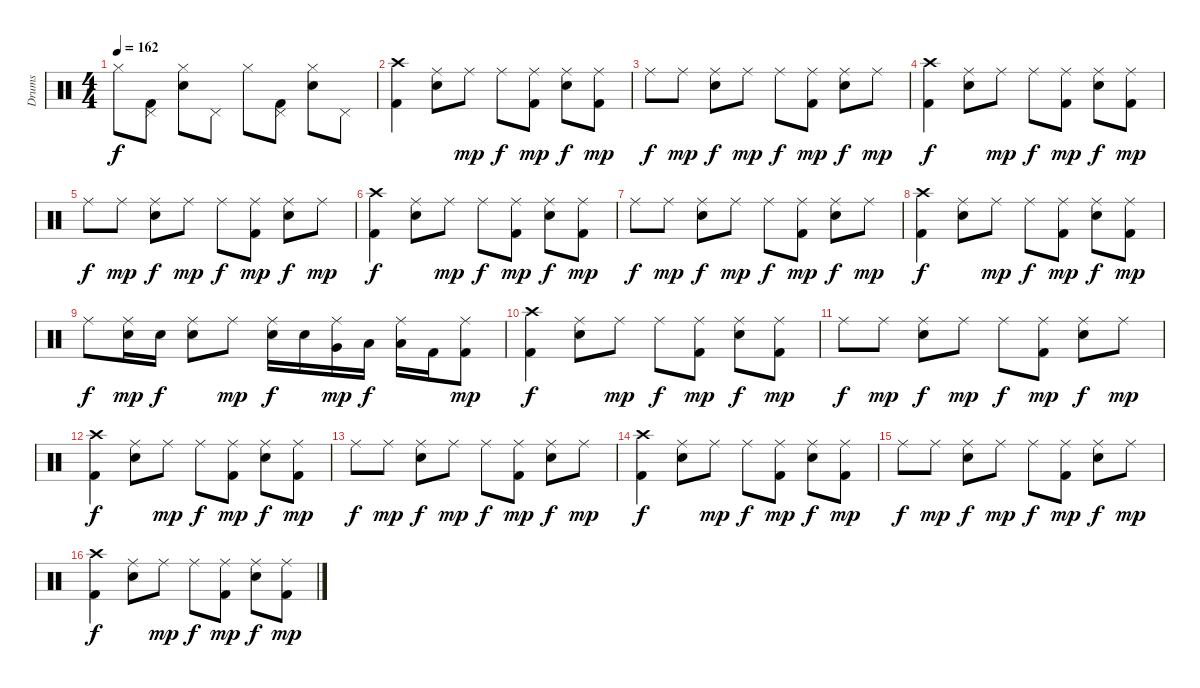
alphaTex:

\track ("Drums" "Drums") {instrument percussion}
\staff {score}
\articulation defaults
\ts (4 4)
\tempo 162
\clef neutral
\ks c "Hi-Hat (closed)".8{dy f}
("Kick (hit) 2" "Pedal Hi-Hat (hit)").8 ("Electric Snare (hit)" "Hi-Hat (closed)").8 "Pedal Hi-Hat (hit)".8 "Hi-Hat (closed)".8 ("Kick (hit) 2" "Pedal Hi-Hat (hit)").8 ("Electric Snare (hit)" "Hi-Hat (closed)").8 "Pedal Hi-Hat (hit)".8 |
("Kick (hit) 2" "Crash high (hit)").4 ("Ride (middle)" "Electric Snare (hit)").8 "Ride (middle)".8{dy mp} "Ride (middle)".8{dy f} ("Kick (hit) 2" "Ride (middle)").8{dy mp} ("Electric Snare (hit)" "Ride (middle)").8{dy f} ("Kick (hit) 2" "Ride (middle)").8{dy mp} |
"Ride (middle)".8{dy f} "Ride (middle)".8{dy mp} ("Electric Snare (hit)" "Ride (middle)").8{dy f} "Ride (middle)".8{dy mp} "Ride (middle)".8{dy f} ("Kick (hit) 2" "Ride (middle)").8{dy mp} ("Electric Snare (hit)" "Ride (middle)").8{dy f} "Ride (middle)".8{dy mp} |
("Kick (hit) 2" "Crash high (hit)").4{dy f} ("Ride (middle)" "Electric Snare (hit)").8 "Ride (middle)".8{dy mp} "Ride (middle)".8{dy f} ("Kick (hit) 2" "Ride (middle)").8{dy mp} ("Electric Snare (hit)" "Ride (middle)").8{dy f} ("Kick (hit) 2" "Ride (middle)").8{dy mp} |
"Ride (middle)".8{dy f} "Ride (middle)".8{dy mp} ("Electric Snare (hit)" "Ride (middle)").8{dy f} "Ride (middle)".8{dy mp} "Ride (middle)".8{dy f} ("Kick (hit) 2" "Ride (middle)").8{dy mp} ("Electric Snare (hit)" "Ride (middle)").8{dy f} "Ride (middle)".8{dy mp} |
("Kick (hit) 2" "Crash high (hit)").4{dy f} ("Ride (middle)" "Electric Snare (hit)").8 "Ride (middle)".8{dy mp} "Ride (middle)".8{dy f} ("Kick (hit) 2" "Ride (middle)").8{dy mp} ("Electric Snare (hit)" "Ride (middle)").8{dy f} ("Kick (hit) 2" "Ride (middle)").8{dy mp} |
"Ride (middle)".8{dy f} "Ride (middle)".8{dy mp} ("Electric Snare (hit)" "Ride (middle)").8{dy f} "Ride (middle)".8{dy mp} "Ride (middle)".8{dy f} ("Kick (hit) 2" "Ride (middle)").8{dy mp} ("Electric Snare (hit)" "Ride (middle)").8{dy f} "Ride (middle)".8{dy mp} |
("Kick (hit) 2" "Crash high (hit)").4{dy f} ("Ride (middle)" "Electric Snare (hit)").8 "Ride (middle)".8{dy mp} "Ride (middle)".8{dy f} ("Kick (hit) 2" "Ride (middle)").8{dy mp} ("Electric Snare (hit)" "Ride (middle)").8{dy f} ("Kick (hit) 2" "Ride (middle)").8{dy mp} |
"Ride (middle)".8{dy f} ("Electric Snare (hit)" "Ride (middle)").16{dy mp} "Electric Snare (hit)".16{dy f} ("Electric Snare (hit)" "Ride (middle)").8 "Ride (middle)".8{dy mp} ("Electric Snare (hit)" "Ride (middle)").16{dy f} "Electric Snare (hit)".16 ("Very Low Tom (hit)" "Ride (middle)").16{dy mp} "Low Floor Tom (hit)".16{dy f} ("Low Floor Tom (hit)" "Ride (middle)").16 "Kick (hit) 2".16 ("Kick (hit) 2" "Ride (middle)").8{dy mp} |
("Kick (hit) 2" "Crash high (hit)").4{dy f} ("Ride (middle)" "Electric Snare (hit)").8 "Ride (middle)".8{dy mp} "Ride (middle)".8{dy f} ("Kick (hit) 2" "Ride (middle)").8{dy mp} ("Electric Snare (hit)" "Ride (middle)").8{dy f} ("Kick (hit) 2" "Ride (middle)").8{dy mp} |
"Ride (middle)".8{dy f} "Ride (middle)".8{dy mp} ("Electric Snare (hit)" "Ride (middle)").8{dy f} "Ride (middle)".8{dy mp} "Ride (middle)".8{dy f} ("Kick (hit) 2" "Ride (middle)").8{dy mp} ("Electric Snare (hit)" "Ride (middle)").8{dy f} "Ride (middle)".8{dy mp} |
("Kick (hit) 2" "Crash high (hit)").4{dy f} ("Ride (middle)" "Electric Snare (hit)").8 "Ride (middle)".8{dy mp} "Ride (middle)".8{dy f} ("Kick (hit) 2" "Ride (middle)").8{dy mp} ("Electric Snare (hit)" "Ride (middle)").8{dy f} ("Kick (hit) 2" "Ride (middle)").8{dy mp} |
"Ride (middle)".8{dy f} "Ride (middle)".8{dy mp} ("Electric Snare (hit)" "Ride (middle)").8{dy f} "Ride (middle)".8{dy mp} "Ride (middle)".8{dy f} ("Kick (hit) 2" "Ride (middle)").8{dy mp} ("Electric Snare (hit)" "Ride (middle)").8{dy f} "Ride (middle)".8{dy mp} |
("Kick (hit) 2" "Crash high (hit)").4{dy f} ("Ride (middle)" "Electric Snare (hit)").8 "Ride (middle)".8{dy mp} "Ride (middle)".8{dy f} ("Kick (hit) 2" "Ride (middle)").8{dy mp} ("Electric Snare (hit)" "Ride (middle)").8{dy f} ("Kick (hit) 2" "Ride (middle)").8{dy mp} |
"Ride (middle)".8{dy f} "Ride (middle)".8{dy mp} ("Electric Snare (hit)" "Ride (middle)").8{dy f} "Ride (middle)".8{dy mp} "Ride (middle)".8{dy f} ("Kick (hit) 2" "Ride (middle)").8{dy mp} ("Electric Snare (hit)" "Ride (middle)").8{dy f} "Ride (middle)".8{dy mp} |
("Kick (hit) 2" "Crash high (hit)").4{dy f} ("Ride (middle)" "Electric Snare (hit)").8 "Ride (middle)".8{dy mp} "Ride (middle)".8{dy f} ("Kick (hit) 2" "Ride (middle)").8{dy mp} ("Electric Snare (hit)" "Ride (middle)").8{dy f} ("Kick (hit) 2" "Ride (middle)").8{dy mp}
